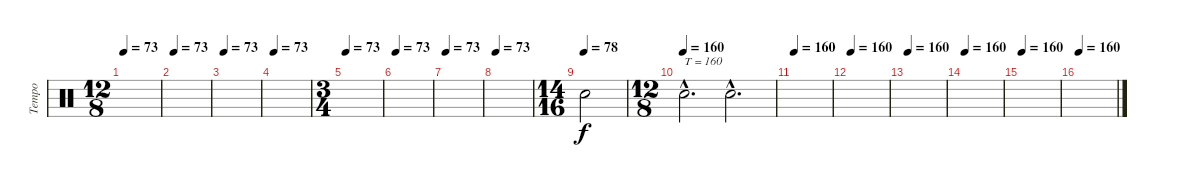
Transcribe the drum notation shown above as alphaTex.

\track ("Tempo" "Tempo") {instrument percussion}
\staff {score}
\articulation defaults
\ts (12 8)
\tempo 73
\clef neutral
\ks c
|
\tempo 73
|
\tempo 73
|
\tempo 73
|
\ts (3 4)
\tempo 73
|
\tempo 73
|
\tempo 73
|
\tempo 73
|
\ts (14 16)
\tempo (78)
"Snare (hit)"{x}.2 |
\ts (12 8)
\tempo (160)
"Snare (hit)"{hac x}.2{d txt "T = 160"} "Snare (hit)"{hac x}.2{d} |
\tempo 160
|
\tempo 160
|
\tempo 160
|
\tempo 160
|
\tempo 160
|
\tempo 160
